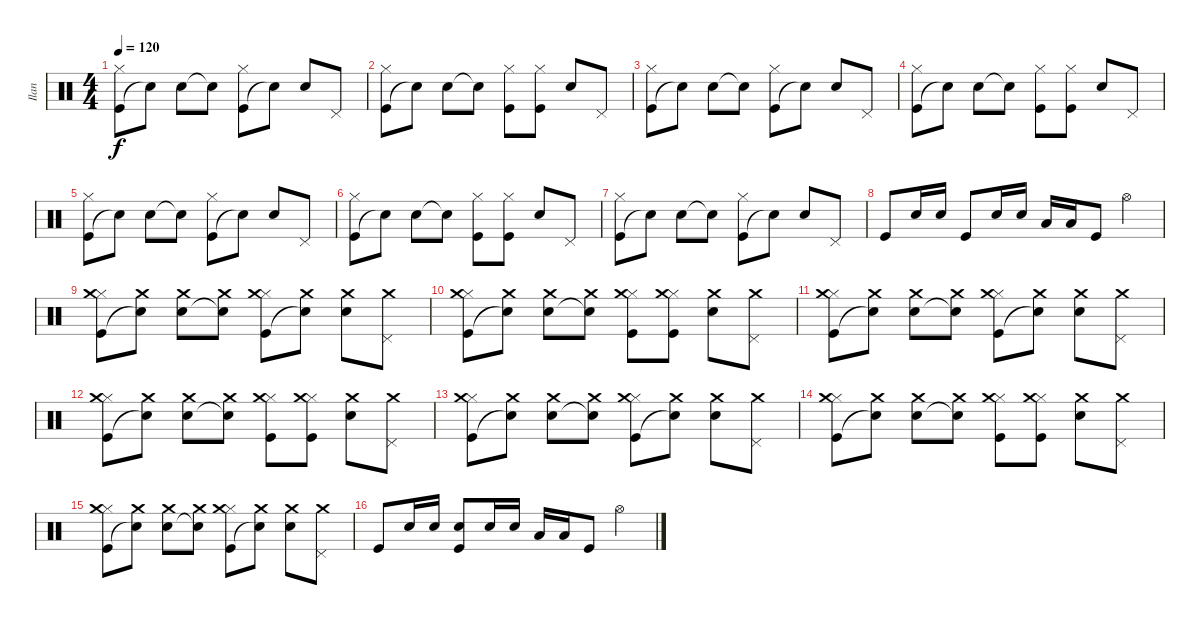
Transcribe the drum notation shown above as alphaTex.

\track ("Ilan" "Ilan") {instrument percussion}
\staff {score}
\articulation defaults
\ts (4 4)
\tempo 120
\clef neutral
\ks c
("Kick (hit)" "Hi-Hat (closed)").8{dy f} "Snare (hit)"{t}.8 "Electric Snare (hit)".8 "Snare (hit)"{t}.8 ("Kick (hit)" "Hi-Hat (closed)").8 "Snare (hit)"{t}.8 "Electric Snare (hit)".8 "Pedal Hi-Hat (hit)".8 |
("Kick (hit)" "Hi-Hat (closed)").8 "Snare (hit)"{t}.8 "Electric Snare (hit)".8 "Snare (hit)"{t}.8 ("Kick (hit)" "Hi-Hat (closed)").8 ("Kick (hit)" "Hi-Hat (closed)").8 "Electric Snare (hit)".8 "Pedal Hi-Hat (hit)".8 |
("Kick (hit)" "Hi-Hat (closed)").8 "Snare (hit)"{t}.8 "Electric Snare (hit)".8 "Snare (hit)"{t}.8 ("Kick (hit)" "Hi-Hat (closed)").8 "Snare (hit)"{t}.8 "Electric Snare (hit)".8 "Pedal Hi-Hat (hit)".8 |
("Kick (hit)" "Hi-Hat (closed)").8 "Snare (hit)"{t}.8 "Electric Snare (hit)".8 "Snare (hit)"{t}.8 ("Kick (hit)" "Hi-Hat (closed)").8 ("Kick (hit)" "Hi-Hat (closed)").8 "Electric Snare (hit)".8 "Pedal Hi-Hat (hit)".8 |
("Kick (hit)" "Hi-Hat (closed)").8 "Snare (hit)"{t}.8 "Electric Snare (hit)".8 "Snare (hit)"{t}.8 ("Kick (hit)" "Hi-Hat (closed)").8 "Snare (hit)"{t}.8 "Electric Snare (hit)".8 "Pedal Hi-Hat (hit)".8 |
("Kick (hit)" "Hi-Hat (closed)").8 "Snare (hit)"{t}.8 "Electric Snare (hit)".8 "Snare (hit)"{t}.8 ("Kick (hit)" "Hi-Hat (closed)").8 ("Kick (hit)" "Hi-Hat (closed)").8 "Electric Snare (hit)".8 "Pedal Hi-Hat (hit)".8 |
("Kick (hit)" "Hi-Hat (closed)").8 "Snare (hit)"{t}.8 "Electric Snare (hit)".8 "Snare (hit)"{t}.8 ("Kick (hit)" "Hi-Hat (closed)").8 "Snare (hit)"{t}.8 "Electric Snare (hit)".8 "Pedal Hi-Hat (hit)".8 |
"Kick (hit)".8 "Electric Snare (hit)".16 "Electric Snare (hit)".16 "Kick (hit)".8 "Electric Snare (hit)".16 "Electric Snare (hit)".16 "Low Tom (hit)".16 "Low Floor Tom (hit)".16 "Kick (hit)".8 "Hi-Hat (open)".4 |
("Kick (hit)" "Hi-Hat (closed)" "Crash medium (hit)").8 ("Snare (hit)"{t} "Crash medium (hit)").8 ("Electric Snare (hit)" "Crash medium (hit)").8 ("Snare (hit)"{t} "Crash medium (hit)").8 ("Kick (hit)" "Hi-Hat (closed)" "Crash medium (hit)").8 ("Snare (hit)"{t} "Crash medium (hit)").8 ("Electric Snare (hit)" "Crash medium (hit)").8 ("Pedal Hi-Hat (hit)" "Crash medium (hit)").8 |
("Kick (hit)" "Hi-Hat (closed)" "Crash medium (hit)").8 ("Snare (hit)"{t} "Crash medium (hit)").8 ("Electric Snare (hit)" "Crash medium (hit)").8 ("Snare (hit)"{t} "Crash medium (hit)").8 ("Kick (hit)" "Hi-Hat (closed)" "Crash medium (hit)").8 ("Kick (hit)" "Hi-Hat (closed)" "Crash medium (hit)").8 ("Electric Snare (hit)" "Crash medium (hit)").8 ("Pedal Hi-Hat (hit)" "Crash medium (hit)").8 |
("Kick (hit)" "Hi-Hat (closed)" "Crash medium (hit)").8 ("Snare (hit)"{t} "Crash medium (hit)").8 ("Electric Snare (hit)" "Crash medium (hit)").8 ("Snare (hit)"{t} "Crash medium (hit)").8 ("Kick (hit)" "Hi-Hat (closed)" "Crash medium (hit)").8 ("Snare (hit)"{t} "Crash medium (hit)").8 ("Electric Snare (hit)" "Crash medium (hit)").8 ("Pedal Hi-Hat (hit)" "Crash medium (hit)").8 |
("Kick (hit)" "Hi-Hat (closed)" "Crash medium (hit)").8 ("Snare (hit)"{t} "Crash medium (hit)").8 ("Electric Snare (hit)" "Crash medium (hit)").8 ("Snare (hit)"{t} "Crash medium (hit)").8 ("Kick (hit)" "Hi-Hat (closed)" "Crash medium (hit)").8 ("Kick (hit)" "Hi-Hat (closed)" "Crash medium (hit)").8 ("Electric Snare (hit)" "Crash medium (hit)").8 ("Pedal Hi-Hat (hit)" "Crash medium (hit)").8 |
("Kick (hit)" "Hi-Hat (closed)" "Crash medium (hit)").8 ("Snare (hit)"{t} "Crash medium (hit)").8 ("Electric Snare (hit)" "Crash medium (hit)").8 ("Snare (hit)"{t} "Crash medium (hit)").8 ("Kick (hit)" "Hi-Hat (closed)" "Crash medium (hit)").8 ("Snare (hit)"{t} "Crash medium (hit)").8 ("Electric Snare (hit)" "Crash medium (hit)").8 ("Pedal Hi-Hat (hit)" "Crash medium (hit)").8 |
("Kick (hit)" "Hi-Hat (closed)" "Crash medium (hit)").8 ("Snare (hit)"{t} "Crash medium (hit)").8 ("Electric Snare (hit)" "Crash medium (hit)").8 ("Snare (hit)"{t} "Crash medium (hit)").8 ("Kick (hit)" "Hi-Hat (closed)" "Crash medium (hit)").8 ("Kick (hit)" "Hi-Hat (closed)" "Crash medium (hit)").8 ("Electric Snare (hit)" "Crash medium (hit)").8 ("Pedal Hi-Hat (hit)" "Crash medium (hit)").8 |
("Kick (hit)" "Hi-Hat (closed)" "Crash medium (hit)").8 ("Snare (hit)"{t} "Crash medium (hit)").8 ("Electric Snare (hit)" "Crash medium (hit)").8 ("Snare (hit)"{t} "Crash medium (hit)").8 ("Kick (hit)" "Hi-Hat (closed)" "Crash medium (hit)").8 ("Snare (hit)"{t} "Crash medium (hit)").8 ("Electric Snare (hit)" "Crash medium (hit)").8 ("Pedal Hi-Hat (hit)" "Crash medium (hit)").8 |
"Kick (hit)".8 "Electric Snare (hit)".16 "Electric Snare (hit)".16 ("Electric Snare (hit)" "Kick (hit)").8 "Electric Snare (hit)".16 "Electric Snare (hit)".16 "Low Tom (hit)".16 "Low Floor Tom (hit)".16 "Kick (hit)".8 "Hi-Hat (open)".4
